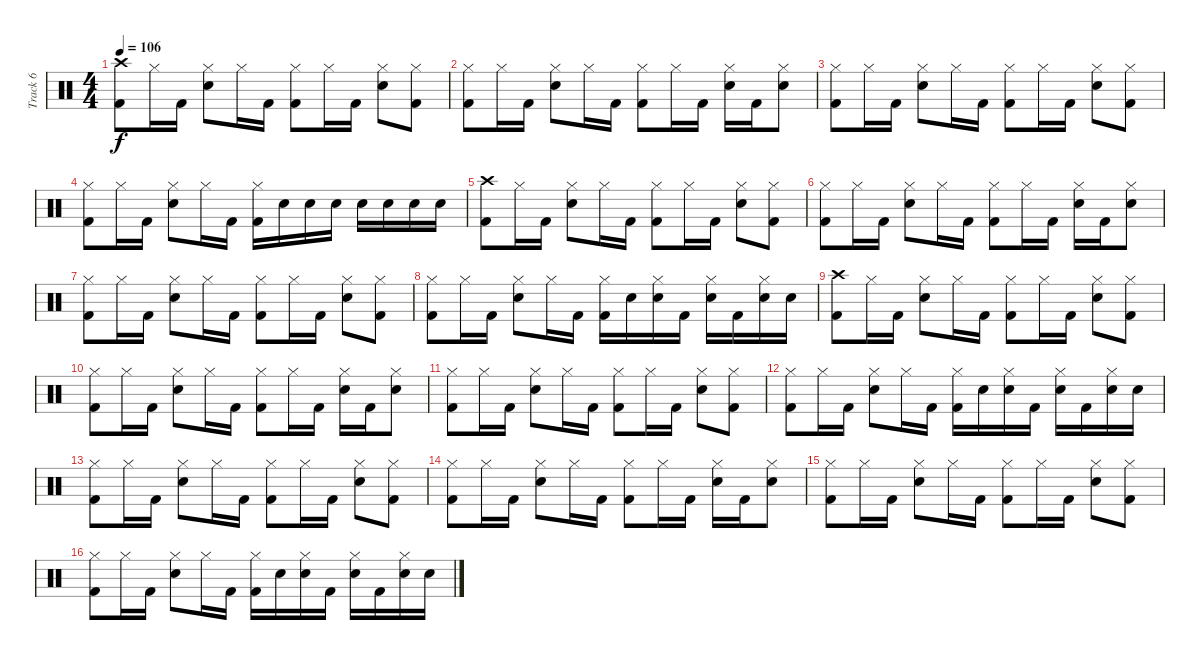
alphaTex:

\track ("Track 6" "Track 6") {instrument percussion}
\staff {score}
\articulation defaults
\ts (4 4)
\tempo 106
\clef neutral
\ks c
("Crash high (hit)" "Kick (hit) 2").8{dy f} "Hi-Hat (closed)".16 "Kick (hit) 2".16 ("Hi-Hat (closed)" "Snare (hit) 2").8 "Hi-Hat (closed)".16 "Kick (hit) 2".16 ("Hi-Hat (closed)" "Kick (hit) 2").8 "Hi-Hat (closed)".16 "Kick (hit) 2".16 ("Hi-Hat (closed)" "Snare (hit) 2").8 ("Hi-Hat (closed)" "Kick (hit) 2").8 |
("Hi-Hat (closed)" "Kick (hit) 2").8 "Hi-Hat (closed)".16 "Kick (hit) 2".16 ("Hi-Hat (closed)" "Snare (hit) 2").8 "Hi-Hat (closed)".16 "Kick (hit) 2".16 ("Hi-Hat (closed)" "Kick (hit) 2").8 "Hi-Hat (closed)".16 "Kick (hit) 2".16 ("Hi-Hat (closed)" "Snare (hit) 2").16 "Kick (hit) 2".16 ("Hi-Hat (closed)" "Snare (hit) 2").8 |
("Hi-Hat (closed)" "Kick (hit) 2").8 "Hi-Hat (closed)".16 "Kick (hit) 2".16 ("Hi-Hat (closed)" "Snare (hit) 2").8 "Hi-Hat (closed)".16 "Kick (hit) 2".16 ("Hi-Hat (closed)" "Kick (hit) 2").8 "Hi-Hat (closed)".16 "Kick (hit) 2".16 ("Hi-Hat (closed)" "Snare (hit) 2").8 ("Hi-Hat (closed)" "Kick (hit) 2").8 |
("Hi-Hat (closed)" "Kick (hit) 2").8 "Hi-Hat (closed)".16 "Kick (hit) 2".16 ("Hi-Hat (closed)" "Snare (hit) 2").8 "Hi-Hat (closed)".16 "Kick (hit) 2".16 ("Hi-Hat (closed)" "Kick (hit) 2").16 "Snare (hit) 2".16 "Snare (hit) 2".16 "Snare (hit) 2".16 "Snare (hit) 2".16 "Snare (hit) 2".16 "Snare (hit) 2".16 "Snare (hit) 2".16 |
("Crash high (hit)" "Kick (hit) 2").8 "Hi-Hat (closed)".16 "Kick (hit) 2".16 ("Hi-Hat (closed)" "Snare (hit) 2").8 "Hi-Hat (closed)".16 "Kick (hit) 2".16 ("Hi-Hat (closed)" "Kick (hit) 2").8 "Hi-Hat (closed)".16 "Kick (hit) 2".16 ("Hi-Hat (closed)" "Snare (hit) 2").8 ("Hi-Hat (closed)" "Kick (hit) 2").8 |
("Hi-Hat (closed)" "Kick (hit) 2").8 "Hi-Hat (closed)".16 "Kick (hit) 2".16 ("Hi-Hat (closed)" "Snare (hit) 2").8 "Hi-Hat (closed)".16 "Kick (hit) 2".16 ("Hi-Hat (closed)" "Kick (hit) 2").8 "Hi-Hat (closed)".16 "Kick (hit) 2".16 ("Hi-Hat (closed)" "Snare (hit) 2").16 "Kick (hit) 2".16 ("Hi-Hat (closed)" "Snare (hit) 2").8 |
("Hi-Hat (closed)" "Kick (hit) 2").8 "Hi-Hat (closed)".16 "Kick (hit) 2".16 ("Hi-Hat (closed)" "Snare (hit) 2").8 "Hi-Hat (closed)".16 "Kick (hit) 2".16 ("Hi-Hat (closed)" "Kick (hit) 2").8 "Hi-Hat (closed)".16 "Kick (hit) 2".16 ("Hi-Hat (closed)" "Snare (hit) 2").8 ("Hi-Hat (closed)" "Kick (hit) 2").8 |
("Hi-Hat (closed)" "Kick (hit) 2").8 "Hi-Hat (closed)".16 "Kick (hit) 2".16 ("Hi-Hat (closed)" "Snare (hit) 2").8 "Hi-Hat (closed)".16 "Kick (hit) 2".16 ("Hi-Hat (closed)" "Kick (hit) 2").16 "Snare (hit) 2".16 ("Hi-Hat (closed)" "Snare (hit) 2").16 "Kick (hit) 2".16 ("Hi-Hat (closed)" "Snare (hit) 2").16 "Kick (hit) 2".16 ("Hi-Hat (closed)" "Snare (hit) 2").16 "Snare (hit) 2".16 |
("Crash high (hit)" "Kick (hit) 2").8 "Hi-Hat (closed)".16 "Kick (hit) 2".16 ("Hi-Hat (closed)" "Snare (hit) 2").8 "Hi-Hat (closed)".16 "Kick (hit) 2".16 ("Hi-Hat (closed)" "Kick (hit) 2").8 "Hi-Hat (closed)".16 "Kick (hit) 2".16 ("Hi-Hat (closed)" "Snare (hit) 2").8 ("Hi-Hat (closed)" "Kick (hit) 2").8 |
("Hi-Hat (closed)" "Kick (hit) 2").8 "Hi-Hat (closed)".16 "Kick (hit) 2".16 ("Hi-Hat (closed)" "Snare (hit) 2").8 "Hi-Hat (closed)".16 "Kick (hit) 2".16 ("Hi-Hat (closed)" "Kick (hit) 2").8 "Hi-Hat (closed)".16 "Kick (hit) 2".16 ("Hi-Hat (closed)" "Snare (hit) 2").16 "Kick (hit) 2".16 ("Hi-Hat (closed)" "Snare (hit) 2").8 |
("Hi-Hat (closed)" "Kick (hit) 2").8 "Hi-Hat (closed)".16 "Kick (hit) 2".16 ("Hi-Hat (closed)" "Snare (hit) 2").8 "Hi-Hat (closed)".16 "Kick (hit) 2".16 ("Hi-Hat (closed)" "Kick (hit) 2").8 "Hi-Hat (closed)".16 "Kick (hit) 2".16 ("Hi-Hat (closed)" "Snare (hit) 2").8 ("Hi-Hat (closed)" "Kick (hit) 2").8 |
("Hi-Hat (closed)" "Kick (hit) 2").8 "Hi-Hat (closed)".16 "Kick (hit) 2".16 ("Hi-Hat (closed)" "Snare (hit) 2").8 "Hi-Hat (closed)".16 "Kick (hit) 2".16 ("Hi-Hat (closed)" "Kick (hit) 2").16 "Snare (hit) 2".16 ("Hi-Hat (closed)" "Snare (hit) 2").16 "Kick (hit) 2".16 ("Hi-Hat (closed)" "Snare (hit) 2").16 "Kick (hit) 2".16 ("Hi-Hat (closed)" "Snare (hit) 2").16 "Snare (hit) 2".16 |
("Hi-Hat (closed)" "Kick (hit) 2").8 "Hi-Hat (closed)".16 "Kick (hit) 2".16 ("Hi-Hat (closed)" "Snare (hit) 2").8 "Hi-Hat (closed)".16 "Kick (hit) 2".16 ("Hi-Hat (closed)" "Kick (hit) 2").8 "Hi-Hat (closed)".16 "Kick (hit) 2".16 ("Hi-Hat (closed)" "Snare (hit) 2").8 ("Hi-Hat (closed)" "Kick (hit) 2").8 |
("Hi-Hat (closed)" "Kick (hit) 2").8 "Hi-Hat (closed)".16 "Kick (hit) 2".16 ("Hi-Hat (closed)" "Snare (hit) 2").8 "Hi-Hat (closed)".16 "Kick (hit) 2".16 ("Hi-Hat (closed)" "Kick (hit) 2").8 "Hi-Hat (closed)".16 "Kick (hit) 2".16 ("Hi-Hat (closed)" "Snare (hit) 2").16 "Kick (hit) 2".16 ("Hi-Hat (closed)" "Snare (hit) 2").8 |
("Hi-Hat (closed)" "Kick (hit) 2").8 "Hi-Hat (closed)".16 "Kick (hit) 2".16 ("Hi-Hat (closed)" "Snare (hit) 2").8 "Hi-Hat (closed)".16 "Kick (hit) 2".16 ("Hi-Hat (closed)" "Kick (hit) 2").8 "Hi-Hat (closed)".16 "Kick (hit) 2".16 ("Hi-Hat (closed)" "Snare (hit) 2").8 ("Hi-Hat (closed)" "Kick (hit) 2").8 |
("Hi-Hat (closed)" "Kick (hit) 2").8 "Hi-Hat (closed)".16 "Kick (hit) 2".16 ("Hi-Hat (closed)" "Snare (hit) 2").8 "Hi-Hat (closed)".16 "Kick (hit) 2".16 ("Hi-Hat (closed)" "Kick (hit) 2").16 "Snare (hit) 2".16 ("Hi-Hat (closed)" "Snare (hit) 2").16 "Kick (hit) 2".16 ("Hi-Hat (closed)" "Snare (hit) 2").16 "Kick (hit) 2".16 ("Hi-Hat (closed)" "Snare (hit) 2").16 "Snare (hit) 2".16
